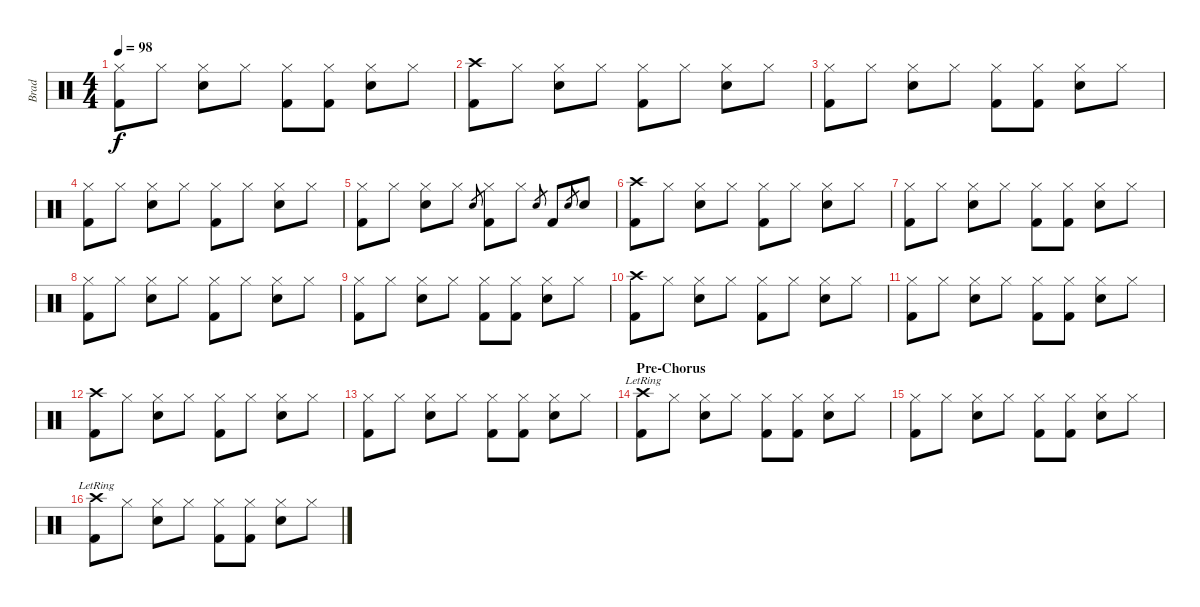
\track ("Brad" "Brad") {instrument percussion}
\staff {score}
\articulation defaults
\ts (4 4)
\tempo 98
\clef neutral
\ks c
("Hi-Hat (closed)" "Kick (hit) 2").8{dy f} "Hi-Hat (closed)".8 ("Hi-Hat (closed)" "Snare (hit) 2").8 "Hi-Hat (closed)".8 ("Hi-Hat (closed)" "Kick (hit) 2").8 ("Hi-Hat (closed)" "Kick (hit) 2").8 ("Hi-Hat (closed)" "Snare (hit) 2").8 "Hi-Hat (closed)".8 |
("Crash high (hit)" "Kick (hit) 2").8 "Hi-Hat (closed)".8 ("Hi-Hat (closed)" "Snare (hit) 2").8 "Hi-Hat (closed)".8 ("Hi-Hat (closed)" "Kick (hit) 2").8 "Hi-Hat (closed)".8 ("Hi-Hat (closed)" "Snare (hit) 2").8 "Hi-Hat (closed)".8 |
("Hi-Hat (closed)" "Kick (hit) 2").8 "Hi-Hat (closed)".8 ("Hi-Hat (closed)" "Snare (hit) 2").8 "Hi-Hat (closed)".8 ("Hi-Hat (closed)" "Kick (hit) 2").8 ("Hi-Hat (closed)" "Kick (hit) 2").8 ("Hi-Hat (closed)" "Snare (hit) 2").8 "Hi-Hat (closed)".8 |
("Hi-Hat (closed)" "Kick (hit) 2").8 "Hi-Hat (closed)".8 ("Hi-Hat (closed)" "Snare (hit) 2").8 "Hi-Hat (closed)".8 ("Hi-Hat (closed)" "Kick (hit) 2").8 "Hi-Hat (closed)".8 ("Hi-Hat (closed)" "Snare (hit) 2").8 "Hi-Hat (closed)".8 |
("Hi-Hat (closed)" "Kick (hit) 2").8 "Hi-Hat (closed)".8 ("Hi-Hat (closed)" "Snare (hit) 2").8 "Hi-Hat (closed)".8 "Snare (hit) 2".8{gr} ("Hi-Hat (closed)" "Kick (hit) 2").8 "Hi-Hat (closed)".8 "Snare (hit) 2".8{gr} "Kick (hit) 2".8 "Snare (hit) 2".8{gr} "Snare (hit) 2".8 |
("Crash high (hit)" "Kick (hit) 2").8 "Hi-Hat (closed)".8 ("Hi-Hat (closed)" "Snare (hit) 2").8 "Hi-Hat (closed)".8 ("Hi-Hat (closed)" "Kick (hit) 2").8 "Hi-Hat (closed)".8 ("Hi-Hat (closed)" "Snare (hit) 2").8 "Hi-Hat (closed)".8 |
("Hi-Hat (closed)" "Kick (hit) 2").8 "Hi-Hat (closed)".8 ("Hi-Hat (closed)" "Snare (hit) 2").8 "Hi-Hat (closed)".8 ("Hi-Hat (closed)" "Kick (hit) 2").8 ("Hi-Hat (closed)" "Kick (hit) 2").8 ("Hi-Hat (closed)" "Snare (hit) 2").8 "Hi-Hat (closed)".8 |
("Hi-Hat (closed)" "Kick (hit) 2").8 "Hi-Hat (closed)".8 ("Hi-Hat (closed)" "Snare (hit) 2").8 "Hi-Hat (closed)".8 ("Hi-Hat (closed)" "Kick (hit) 2").8 "Hi-Hat (closed)".8 ("Hi-Hat (closed)" "Snare (hit) 2").8 "Hi-Hat (closed)".8 |
("Hi-Hat (closed)" "Kick (hit) 2").8 "Hi-Hat (closed)".8 ("Hi-Hat (closed)" "Snare (hit) 2").8 "Hi-Hat (closed)".8 ("Hi-Hat (closed)" "Kick (hit) 2").8 ("Hi-Hat (closed)" "Kick (hit) 2").8 ("Hi-Hat (closed)" "Snare (hit) 2").8 "Hi-Hat (closed)".8 |
("Crash high (hit)" "Kick (hit) 2").8 "Hi-Hat (closed)".8 ("Hi-Hat (closed)" "Snare (hit) 2").8 "Hi-Hat (closed)".8 ("Hi-Hat (closed)" "Kick (hit) 2").8 "Hi-Hat (closed)".8 ("Hi-Hat (closed)" "Snare (hit) 2").8 "Hi-Hat (closed)".8 |
("Hi-Hat (closed)" "Kick (hit) 2").8 "Hi-Hat (closed)".8 ("Hi-Hat (closed)" "Snare (hit) 2").8 "Hi-Hat (closed)".8 ("Hi-Hat (closed)" "Kick (hit) 2").8 ("Hi-Hat (closed)" "Kick (hit) 2").8 ("Hi-Hat (closed)" "Snare (hit) 2").8 "Hi-Hat (closed)".8 |
("Crash high (hit)" "Kick (hit) 2").8 "Hi-Hat (closed)".8 ("Hi-Hat (closed)" "Snare (hit) 2").8 "Hi-Hat (closed)".8 ("Hi-Hat (closed)" "Kick (hit) 2").8 "Hi-Hat (closed)".8 ("Hi-Hat (closed)" "Snare (hit) 2").8 "Hi-Hat (closed)".8 |
("Hi-Hat (closed)" "Kick (hit) 2").8 "Hi-Hat (closed)".8 ("Hi-Hat (closed)" "Snare (hit) 2").8 "Hi-Hat (closed)".8 ("Hi-Hat (closed)" "Kick (hit) 2").8 ("Hi-Hat (closed)" "Kick (hit) 2").8 ("Hi-Hat (closed)" "Snare (hit) 2").8 "Hi-Hat (closed)".8 |
\section ("" "Pre-Chorus")
("Crash high (hit)"{lr} "Kick (hit) 2").8 "Hi-Hat (closed)".8 ("Hi-Hat (closed)" "Snare (hit) 2").8 "Hi-Hat (closed)".8 ("Hi-Hat (closed)" "Kick (hit) 2").8 ("Hi-Hat (closed)" "Kick (hit) 2").8 ("Hi-Hat (closed)" "Snare (hit) 2").8 "Hi-Hat (closed)".8 |
("Hi-Hat (closed)" "Kick (hit) 2").8 "Hi-Hat (closed)".8 ("Hi-Hat (closed)" "Snare (hit) 2").8 "Hi-Hat (closed)".8 ("Hi-Hat (closed)" "Kick (hit) 2").8 ("Hi-Hat (closed)" "Kick (hit) 2").8 ("Hi-Hat (closed)" "Snare (hit) 2").8 "Hi-Hat (closed)".8 |
("Crash high (hit)"{lr} "Kick (hit) 2").8 "Hi-Hat (closed)".8 ("Hi-Hat (closed)" "Snare (hit) 2").8 "Hi-Hat (closed)".8 ("Hi-Hat (closed)" "Kick (hit) 2").8 ("Hi-Hat (closed)" "Kick (hit) 2").8 ("Hi-Hat (closed)" "Snare (hit) 2").8 "Hi-Hat (closed)".8
